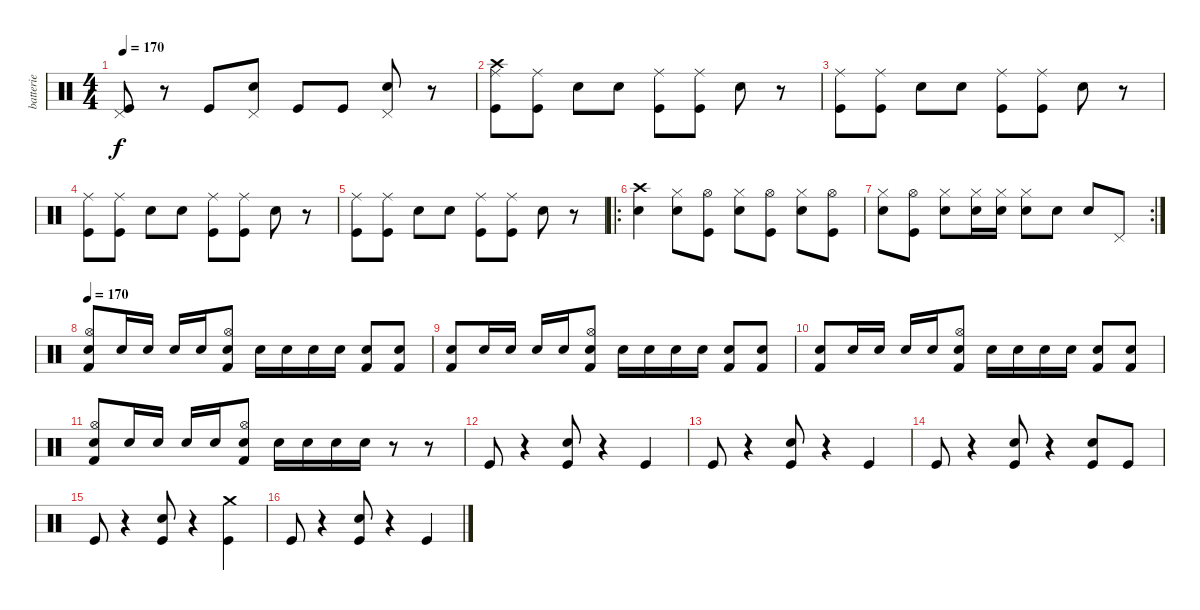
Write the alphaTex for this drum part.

\track ("batterie" "batterie") {instrument percussion}
\staff {score}
\articulation defaults
\ts (4 4)
\tempo 170
\clef neutral
\ks c
("Pedal Hi-Hat (hit)" "Kick (hit)").8{dy f} r.8 "Kick (hit)".8 ("Pedal Hi-Hat (hit)" "Electric Snare (hit)").8 "Kick (hit)".8 "Kick (hit)".8 ("Pedal Hi-Hat (hit)" "Electric Snare (hit)").8 r.8 |
("Crash high (hit)" "Ride (middle)" "Kick (hit)").8 ("Ride (middle)" "Kick (hit)").8 "Electric Snare (hit)".8 "Electric Snare (hit)".8 ("Ride (middle)" "Kick (hit)").8 ("Ride (middle)" "Kick (hit)").8 "Electric Snare (hit)".8 r.8 |
("Ride (middle)" "Kick (hit)").8 ("Ride (middle)" "Kick (hit)").8 "Electric Snare (hit)".8 "Electric Snare (hit)".8 ("Ride (middle)" "Kick (hit)").8 ("Ride (middle)" "Kick (hit)").8 "Electric Snare (hit)".8 r.8 |
("Ride (middle)" "Kick (hit)").8 ("Ride (middle)" "Kick (hit)").8 "Electric Snare (hit)".8 "Electric Snare (hit)".8 ("Ride (middle)" "Kick (hit)").8 ("Ride (middle)" "Kick (hit)").8 "Electric Snare (hit)".8 r.8 |
("Ride (middle)" "Kick (hit)").8 ("Ride (middle)" "Kick (hit)").8 "Electric Snare (hit)".8 "Electric Snare (hit)".8 ("Ride (middle)" "Kick (hit)").8 ("Ride (middle)" "Kick (hit)").8 "Electric Snare (hit)".8 r.8 |
\ro
("Crash high (hit)" "Electric Snare (hit)").4 ("Hi-Hat (closed)" "Electric Snare (hit)").8 ("Hi-Hat (open)" "Kick (hit)").8 ("Hi-Hat (closed)" "Electric Snare (hit)").8 ("Hi-Hat (open)" "Kick (hit)").8 ("Hi-Hat (closed)" "Electric Snare (hit)").8 ("Hi-Hat (open)" "Kick (hit)").8 |
\rc 2
("Hi-Hat (closed)" "Electric Snare (hit)").8 ("Hi-Hat (open)" "Kick (hit)").8 ("Hi-Hat (closed)" "Electric Snare (hit)").8 ("Hi-Hat (closed)" "Electric Snare (hit)").16 ("Hi-Hat (closed)" "Electric Snare (hit)").16 ("Hi-Hat (closed)" "Electric Snare (hit)").8 "Electric Snare (hit)".8 "Electric Snare (hit)".8 "Pedal Hi-Hat (hit)".8 |
\tempo 170
("Hi-Hat (open)" "Electric Snare (hit)" "Kick (hit) 2").8 "Electric Snare (hit)".16 "Electric Snare (hit)".16 "Electric Snare (hit)".16 "Electric Snare (hit)".16 ("Hi-Hat (open)" "Electric Snare (hit)" "Kick (hit) 2").8 "Electric Snare (hit)".16 "Electric Snare (hit)".16 "Electric Snare (hit)".16 "Electric Snare (hit)".16 ("Electric Snare (hit)" "Kick (hit) 2").8 ("Electric Snare (hit)" "Kick (hit) 2").8 |
("Electric Snare (hit)" "Kick (hit) 2").8 "Electric Snare (hit)".16 "Electric Snare (hit)".16 "Electric Snare (hit)".16 "Electric Snare (hit)".16 ("Hi-Hat (open)" "Electric Snare (hit)" "Kick (hit) 2").8 "Electric Snare (hit)".16 "Electric Snare (hit)".16 "Electric Snare (hit)".16 "Electric Snare (hit)".16 ("Electric Snare (hit)" "Kick (hit) 2").8 ("Electric Snare (hit)" "Kick (hit) 2").8 |
("Electric Snare (hit)" "Kick (hit) 2").8 "Electric Snare (hit)".16 "Electric Snare (hit)".16 "Electric Snare (hit)".16 "Electric Snare (hit)".16 ("Hi-Hat (open)" "Electric Snare (hit)" "Kick (hit) 2").8 "Electric Snare (hit)".16 "Electric Snare (hit)".16 "Electric Snare (hit)".16 "Electric Snare (hit)".16 ("Electric Snare (hit)" "Kick (hit) 2").8 ("Electric Snare (hit)" "Kick (hit) 2").8 |
("Hi-Hat (open)" "Electric Snare (hit)" "Kick (hit) 2").8 "Electric Snare (hit)".16 "Electric Snare (hit)".16 "Electric Snare (hit)".16 "Electric Snare (hit)".16 ("Hi-Hat (open)" "Electric Snare (hit)" "Kick (hit) 2").8 "Electric Snare (hit)".16 "Electric Snare (hit)".16 "Electric Snare (hit)".16 "Electric Snare (hit)".16 r.8 r.8 |
"Kick (hit)".8 r.4 ("Electric Snare (hit)" "Kick (hit)").8 r.4 "Kick (hit)".4 |
"Kick (hit)".8 r.4 ("Electric Snare (hit)" "Kick (hit)").8 r.4 "Kick (hit)".4 |
"Kick (hit)".8 r.4 ("Electric Snare (hit)" "Kick (hit)").8 r.4 ("Electric Snare (hit)" "Kick (hit)").8 "Kick (hit)".8 |
"Kick (hit)".8 r.4 ("Electric Snare (hit)" "Kick (hit)").8 r.4 ("Crash medium (hit)" "Kick (hit)").4 |
"Kick (hit)".8 r.4 ("Electric Snare (hit)" "Kick (hit)").8 r.4 "Kick (hit)".4
